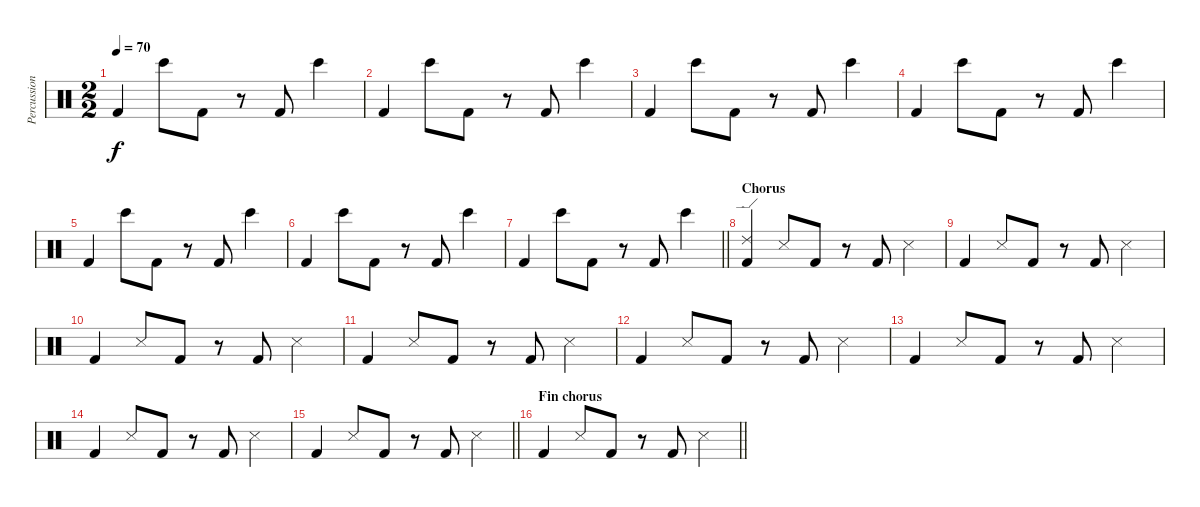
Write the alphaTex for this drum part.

\track ("Percussions" "Percussion") {instrument percussion}
\staff {score}
\articulation defaults
\ts (2 2)
\tempo 70
\clef neutral
\ks c "Kick (hit) 2".4{dy f} "Bongo High (hit)".8 "Kick (hit) 2".8
r.8 "Kick (hit) 2".8 "Bongo High (hit)".4 |
"Kick (hit) 2".4 "Bongo High (hit)".8 "Kick (hit) 2".8 r.8 "Kick (hit) 2".8 "Bongo High (hit)".4 |
"Kick (hit) 2".4 "Bongo High (hit)".8 "Kick (hit) 2".8 r.8 "Kick (hit) 2".8 "Bongo High (hit)".4 |
"Kick (hit) 2".4 "Bongo High (hit)".8 "Kick (hit) 2".8 r.8 "Kick (hit) 2".8 "Bongo High (hit)".4 |
"Kick (hit) 2".4 "Bongo High (hit)".8 "Kick (hit) 2".8 r.8 "Kick (hit) 2".8 "Bongo High (hit)".4 |
"Kick (hit) 2".4 "Bongo High (hit)".8 "Kick (hit) 2".8 r.8 "Kick (hit) 2".8 "Bongo High (hit)".4 |
\barLineRight lightlight "Kick (hit) 2".4 "Bongo High (hit)".8 "Kick (hit) 2".8
r.8 "Kick (hit) 2".8 "Bongo High (hit)".4 |
\section ("" "Chorus")
("Ride (edge) 2" "Kick (hit) 2").4 "Snare (side stick) 3".8 "Kick (hit) 2".8 r.8 "Kick (hit) 2".8 "Snare (side stick) 3".4 |
"Kick (hit) 2".4 "Snare (side stick) 3".8 "Kick (hit) 2".8 r.8 "Kick (hit) 2".8 "Snare (side stick) 3".4 |
"Kick (hit) 2".4 "Snare (side stick) 3".8 "Kick (hit) 2".8 r.8 "Kick (hit) 2".8 "Snare (side stick) 3".4 |
"Kick (hit) 2".4 "Snare (side stick) 3".8 "Kick (hit) 2".8 r.8 "Kick (hit) 2".8 "Snare (side stick) 3".4 |
"Kick (hit) 2".4 "Snare (side stick) 3".8 "Kick (hit) 2".8 r.8 "Kick (hit) 2".8 "Snare (side stick) 3".4 |
"Kick (hit) 2".4 "Snare (side stick) 3".8 "Kick (hit) 2".8 r.8 "Kick (hit) 2".8 "Snare (side stick) 3".4 |
"Kick (hit) 2".4 "Snare (side stick) 3".8 "Kick (hit) 2".8 r.8 "Kick (hit) 2".8 "Snare (side stick) 3".4 |
\barLineRight lightlight "Kick (hit) 2".4 "Snare (side stick) 3".8 "Kick (hit) 2".8
r.8 "Kick (hit) 2".8 "Snare (side stick) 3".4 |
\section ("" "Fin chorus")
\barLineRight lightlight "Kick (hit) 2".4 "Snare (side stick) 3".8 "Kick (hit) 2".8
r.8 "Kick (hit) 2".8 "Snare (side stick) 3".4
